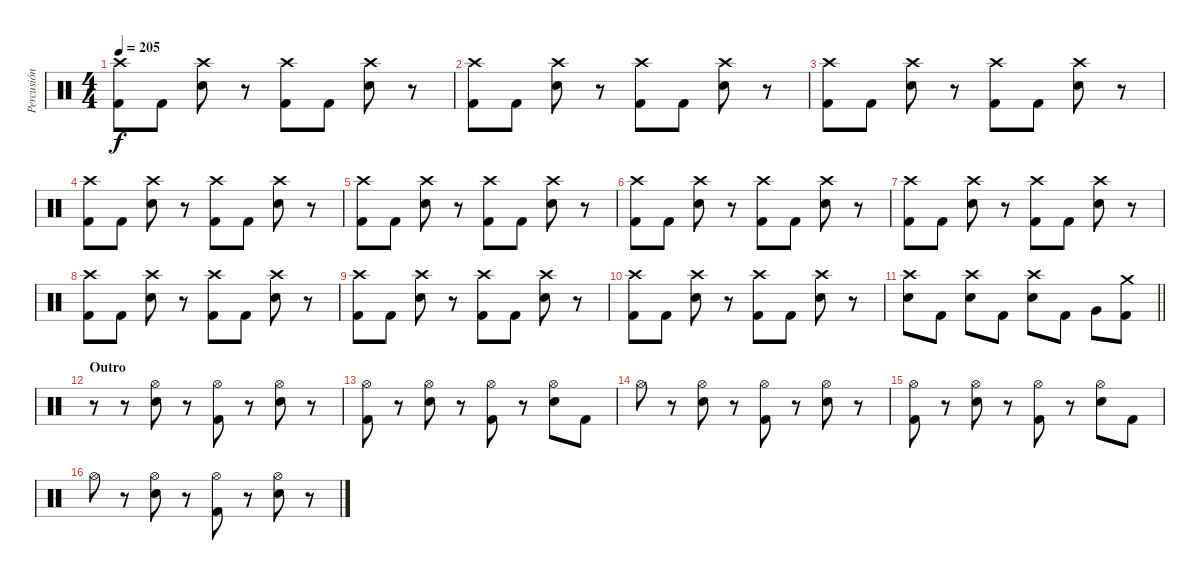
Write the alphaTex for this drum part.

\track ("Percusión" "Percusión") {instrument percussion}
\staff {score}
\articulation defaults
\ts (4 4)
\tempo 205
\clef neutral
\ks c
("Crash high (hit)" "Kick (hit) 2").8{dy f} "Kick (hit) 2".8 ("Crash high (hit)" "Electric Snare (hit)").8 r.8 ("Crash high (hit)" "Kick (hit) 2").8 "Kick (hit) 2".8 ("Crash high (hit)" "Electric Snare (hit)").8 r.8 |
("Crash high (hit)" "Kick (hit) 2").8 "Kick (hit) 2".8 ("Crash high (hit)" "Electric Snare (hit)").8 r.8 ("Crash high (hit)" "Kick (hit) 2").8 "Kick (hit) 2".8 ("Crash high (hit)" "Electric Snare (hit)").8 r.8 |
("Crash high (hit)" "Kick (hit) 2").8 "Kick (hit) 2".8 ("Crash high (hit)" "Electric Snare (hit)").8 r.8 ("Crash high (hit)" "Kick (hit) 2").8 "Kick (hit) 2".8 ("Crash high (hit)" "Electric Snare (hit)").8 r.8 |
("Crash high (hit)" "Kick (hit) 2").8 "Kick (hit) 2".8 ("Crash high (hit)" "Electric Snare (hit)").8 r.8 ("Crash high (hit)" "Kick (hit) 2").8 "Kick (hit) 2".8 ("Crash high (hit)" "Electric Snare (hit)").8 r.8 |
("Crash high (hit)" "Kick (hit) 2").8 "Kick (hit) 2".8 ("Crash high (hit)" "Electric Snare (hit)").8 r.8 ("Crash high (hit)" "Kick (hit) 2").8 "Kick (hit) 2".8 ("Crash high (hit)" "Electric Snare (hit)").8 r.8 |
("Crash high (hit)" "Kick (hit) 2").8 "Kick (hit) 2".8 ("Crash high (hit)" "Electric Snare (hit)").8 r.8 ("Crash high (hit)" "Kick (hit) 2").8 "Kick (hit) 2".8 ("Crash high (hit)" "Electric Snare (hit)").8 r.8 |
("Crash high (hit)" "Kick (hit) 2").8 "Kick (hit) 2".8 ("Crash high (hit)" "Electric Snare (hit)").8 r.8 ("Crash high (hit)" "Kick (hit) 2").8 "Kick (hit) 2".8 ("Crash high (hit)" "Electric Snare (hit)").8 r.8 |
("Crash high (hit)" "Kick (hit) 2").8 "Kick (hit) 2".8 ("Crash high (hit)" "Electric Snare (hit)").8 r.8 ("Crash high (hit)" "Kick (hit) 2").8 "Kick (hit) 2".8 ("Crash high (hit)" "Electric Snare (hit)").8 r.8 |
("Crash high (hit)" "Kick (hit) 2").8 "Kick (hit) 2".8 ("Crash high (hit)" "Electric Snare (hit)").8 r.8 ("Crash high (hit)" "Kick (hit) 2").8 "Kick (hit) 2".8 ("Crash high (hit)" "Electric Snare (hit)").8 r.8 |
("Crash high (hit)" "Kick (hit) 2").8 "Kick (hit) 2".8 ("Crash high (hit)" "Electric Snare (hit)").8 r.8 ("Crash high (hit)" "Kick (hit) 2").8 "Kick (hit) 2".8 ("Crash high (hit)" "Electric Snare (hit)").8 r.8 |
\barLineRight lightlight
("Crash high (hit)" "Electric Snare (hit)").8 "Kick (hit) 2".8 ("Crash high (hit)" "Electric Snare (hit)").8 "Kick (hit) 2".8 ("Crash high (hit)" "Electric Snare (hit)").8 "Kick (hit) 2".8 "Very Low Tom (hit)".8 ("Crash medium (hit)" "Kick (hit) 2").8 |
\section ("" "Outro")
r.8 r.8 ("Hi-Hat (open)" "Electric Snare (hit)").8 r.8 ("Hi-Hat (open)" "Kick (hit) 2").8 r.8 ("Hi-Hat (open)" "Electric Snare (hit)").8 r.8 |
("Hi-Hat (open)" "Kick (hit) 2").8 r.8 ("Hi-Hat (open)" "Electric Snare (hit)").8 r.8 ("Hi-Hat (open)" "Kick (hit) 2").8 r.8 ("Hi-Hat (open)" "Electric Snare (hit)").8 "Kick (hit) 2".8 |
"Hi-Hat (open)".8 r.8 ("Hi-Hat (open)" "Electric Snare (hit)").8 r.8 ("Hi-Hat (open)" "Kick (hit) 2").8 r.8 ("Hi-Hat (open)" "Electric Snare (hit)").8 r.8 |
("Hi-Hat (open)" "Kick (hit) 2").8 r.8 ("Hi-Hat (open)" "Electric Snare (hit)").8 r.8 ("Hi-Hat (open)" "Kick (hit) 2").8 r.8 ("Hi-Hat (open)" "Electric Snare (hit)").8 "Kick (hit) 2".8 |
"Hi-Hat (open)".8 r.8 ("Hi-Hat (open)" "Electric Snare (hit)").8 r.8 ("Hi-Hat (open)" "Kick (hit) 2").8 r.8 ("Hi-Hat (open)" "Electric Snare (hit)").8 r.8
